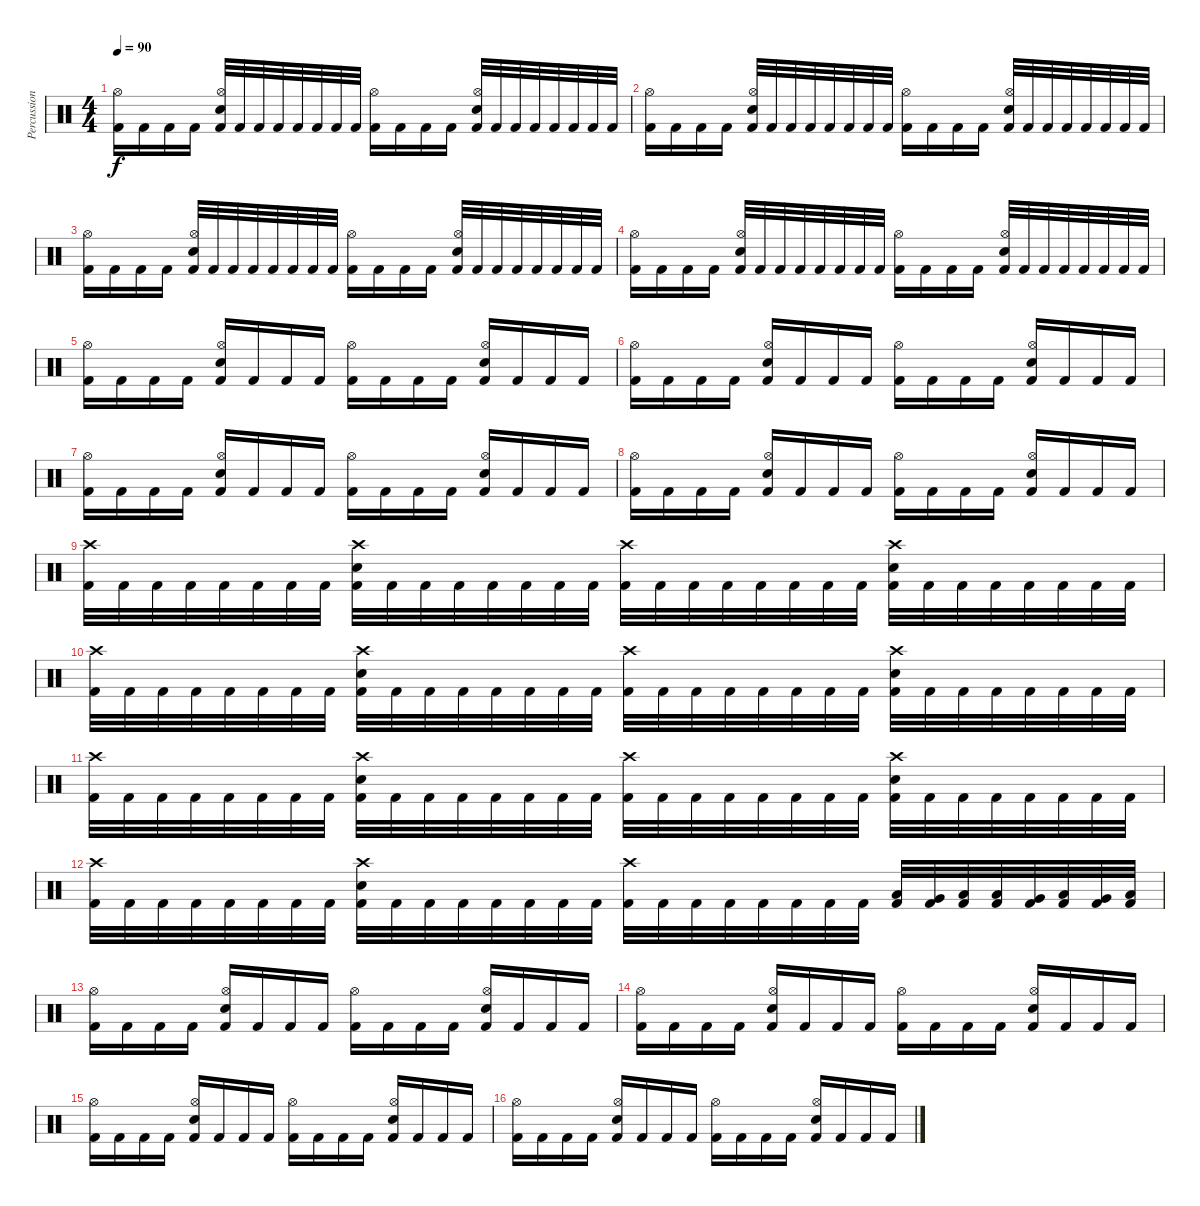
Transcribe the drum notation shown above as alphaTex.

\track ("Percussion" "Percussion") {instrument percussion}
\staff {score}
\articulation defaults
\ts (4 4)
\tempo 90
\clef neutral
\ks c
("Kick (hit) 2" "Hi-Hat (open)").16{dy f} "Kick (hit) 2".16 "Kick (hit) 2".16 "Kick (hit) 2".16 ("Kick (hit) 2" "Hi-Hat (open)" "Electric Snare (hit)").32 "Kick (hit) 2".32 "Kick (hit) 2".32 "Kick (hit) 2".32 "Kick (hit) 2".32 "Kick (hit) 2".32 "Kick (hit) 2".32 "Kick (hit) 2".32 ("Kick (hit) 2" "Hi-Hat (open)").16 "Kick (hit) 2".16 "Kick (hit) 2".16 "Kick (hit) 2".16 ("Kick (hit) 2" "Hi-Hat (open)" "Electric Snare (hit)").32 "Kick (hit) 2".32 "Kick (hit) 2".32 "Kick (hit) 2".32 "Kick (hit) 2".32 "Kick (hit) 2".32 "Kick (hit) 2".32 "Kick (hit) 2".32 |
("Kick (hit) 2" "Hi-Hat (open)").16 "Kick (hit) 2".16 "Kick (hit) 2".16 "Kick (hit) 2".16 ("Kick (hit) 2" "Hi-Hat (open)" "Electric Snare (hit)").32 "Kick (hit) 2".32 "Kick (hit) 2".32 "Kick (hit) 2".32 "Kick (hit) 2".32 "Kick (hit) 2".32 "Kick (hit) 2".32 "Kick (hit) 2".32 ("Kick (hit) 2" "Hi-Hat (open)").16 "Kick (hit) 2".16 "Kick (hit) 2".16 "Kick (hit) 2".16 ("Kick (hit) 2" "Hi-Hat (open)" "Electric Snare (hit)").32 "Kick (hit) 2".32 "Kick (hit) 2".32 "Kick (hit) 2".32 "Kick (hit) 2".32 "Kick (hit) 2".32 "Kick (hit) 2".32 "Kick (hit) 2".32 |
("Kick (hit) 2" "Hi-Hat (open)").16 "Kick (hit) 2".16 "Kick (hit) 2".16 "Kick (hit) 2".16 ("Kick (hit) 2" "Hi-Hat (open)" "Electric Snare (hit)").32 "Kick (hit) 2".32 "Kick (hit) 2".32 "Kick (hit) 2".32 "Kick (hit) 2".32 "Kick (hit) 2".32 "Kick (hit) 2".32 "Kick (hit) 2".32 ("Kick (hit) 2" "Hi-Hat (open)").16 "Kick (hit) 2".16 "Kick (hit) 2".16 "Kick (hit) 2".16 ("Kick (hit) 2" "Hi-Hat (open)" "Electric Snare (hit)").32 "Kick (hit) 2".32 "Kick (hit) 2".32 "Kick (hit) 2".32 "Kick (hit) 2".32 "Kick (hit) 2".32 "Kick (hit) 2".32 "Kick (hit) 2".32 |
("Kick (hit) 2" "Hi-Hat (open)").16 "Kick (hit) 2".16 "Kick (hit) 2".16 "Kick (hit) 2".16 ("Kick (hit) 2" "Hi-Hat (open)" "Electric Snare (hit)").32 "Kick (hit) 2".32 "Kick (hit) 2".32 "Kick (hit) 2".32 "Kick (hit) 2".32 "Kick (hit) 2".32 "Kick (hit) 2".32 "Kick (hit) 2".32 ("Kick (hit) 2" "Hi-Hat (open)").16 "Kick (hit) 2".16 "Kick (hit) 2".16 "Kick (hit) 2".16 ("Kick (hit) 2" "Hi-Hat (open)" "Electric Snare (hit)").32 "Kick (hit) 2".32 "Kick (hit) 2".32 "Kick (hit) 2".32 "Kick (hit) 2".32 "Kick (hit) 2".32 "Kick (hit) 2".32 "Kick (hit) 2".32 |
("Kick (hit) 2" "Hi-Hat (open)").16 "Kick (hit) 2".16 "Kick (hit) 2".16 "Kick (hit) 2".16 ("Kick (hit) 2" "Hi-Hat (open)" "Electric Snare (hit)").16 "Kick (hit) 2".16 "Kick (hit) 2".16 "Kick (hit) 2".16 ("Kick (hit) 2" "Hi-Hat (open)").16 "Kick (hit) 2".16 "Kick (hit) 2".16 "Kick (hit) 2".16 ("Kick (hit) 2" "Hi-Hat (open)" "Electric Snare (hit)").16 "Kick (hit) 2".16 "Kick (hit) 2".16 "Kick (hit) 2".16 |
("Kick (hit) 2" "Hi-Hat (open)").16 "Kick (hit) 2".16 "Kick (hit) 2".16 "Kick (hit) 2".16 ("Kick (hit) 2" "Hi-Hat (open)" "Electric Snare (hit)").16 "Kick (hit) 2".16 "Kick (hit) 2".16 "Kick (hit) 2".16 ("Kick (hit) 2" "Hi-Hat (open)").16 "Kick (hit) 2".16 "Kick (hit) 2".16 "Kick (hit) 2".16 ("Kick (hit) 2" "Hi-Hat (open)" "Electric Snare (hit)").16 "Kick (hit) 2".16 "Kick (hit) 2".16 "Kick (hit) 2".16 |
("Kick (hit) 2" "Hi-Hat (open)").16 "Kick (hit) 2".16 "Kick (hit) 2".16 "Kick (hit) 2".16 ("Kick (hit) 2" "Hi-Hat (open)" "Electric Snare (hit)").16 "Kick (hit) 2".16 "Kick (hit) 2".16 "Kick (hit) 2".16 ("Kick (hit) 2" "Hi-Hat (open)").16 "Kick (hit) 2".16 "Kick (hit) 2".16 "Kick (hit) 2".16 ("Kick (hit) 2" "Hi-Hat (open)" "Electric Snare (hit)").16 "Kick (hit) 2".16 "Kick (hit) 2".16 "Kick (hit) 2".16 |
("Kick (hit) 2" "Hi-Hat (open)").16 "Kick (hit) 2".16 "Kick (hit) 2".16 "Kick (hit) 2".16 ("Kick (hit) 2" "Hi-Hat (open)" "Electric Snare (hit)").16 "Kick (hit) 2".16 "Kick (hit) 2".16 "Kick (hit) 2".16 ("Kick (hit) 2" "Hi-Hat (open)").16 "Kick (hit) 2".16 "Kick (hit) 2".16 "Kick (hit) 2".16 ("Kick (hit) 2" "Hi-Hat (open)" "Electric Snare (hit)").16 "Kick (hit) 2".16 "Kick (hit) 2".16 "Kick (hit) 2".16 |
("Kick (hit) 2" "Crash high (hit)").32 "Kick (hit) 2".32 "Kick (hit) 2".32 "Kick (hit) 2".32 "Kick (hit) 2".32 "Kick (hit) 2".32 "Kick (hit) 2".32 "Kick (hit) 2".32 ("Kick (hit) 2" "Crash high (hit)" "Electric Snare (hit)").32 "Kick (hit) 2".32 "Kick (hit) 2".32 "Kick (hit) 2".32 "Kick (hit) 2".32 "Kick (hit) 2".32 "Kick (hit) 2".32 "Kick (hit) 2".32 ("Kick (hit) 2" "Crash high (hit)").32 "Kick (hit) 2".32 "Kick (hit) 2".32 "Kick (hit) 2".32 "Kick (hit) 2".32 "Kick (hit) 2".32 "Kick (hit) 2".32 "Kick (hit) 2".32 ("Kick (hit) 2" "Crash high (hit)" "Electric Snare (hit)").32 "Kick (hit) 2".32 "Kick (hit) 2".32 "Kick (hit) 2".32 "Kick (hit) 2".32 "Kick (hit) 2".32 "Kick (hit) 2".32 "Kick (hit) 2".32 |
("Kick (hit) 2" "Crash high (hit)").32 "Kick (hit) 2".32 "Kick (hit) 2".32 "Kick (hit) 2".32 "Kick (hit) 2".32 "Kick (hit) 2".32 "Kick (hit) 2".32 "Kick (hit) 2".32 ("Kick (hit) 2" "Crash high (hit)" "Electric Snare (hit)").32 "Kick (hit) 2".32 "Kick (hit) 2".32 "Kick (hit) 2".32 "Kick (hit) 2".32 "Kick (hit) 2".32 "Kick (hit) 2".32 "Kick (hit) 2".32 ("Kick (hit) 2" "Crash high (hit)").32 "Kick (hit) 2".32 "Kick (hit) 2".32 "Kick (hit) 2".32 "Kick (hit) 2".32 "Kick (hit) 2".32 "Kick (hit) 2".32 "Kick (hit) 2".32 ("Kick (hit) 2" "Crash high (hit)" "Electric Snare (hit)").32 "Kick (hit) 2".32 "Kick (hit) 2".32 "Kick (hit) 2".32 "Kick (hit) 2".32 "Kick (hit) 2".32 "Kick (hit) 2".32 "Kick (hit) 2".32 |
("Kick (hit) 2" "Crash high (hit)").32 "Kick (hit) 2".32 "Kick (hit) 2".32 "Kick (hit) 2".32 "Kick (hit) 2".32 "Kick (hit) 2".32 "Kick (hit) 2".32 "Kick (hit) 2".32 ("Kick (hit) 2" "Crash high (hit)" "Electric Snare (hit)").32 "Kick (hit) 2".32 "Kick (hit) 2".32 "Kick (hit) 2".32 "Kick (hit) 2".32 "Kick (hit) 2".32 "Kick (hit) 2".32 "Kick (hit) 2".32 ("Kick (hit) 2" "Crash high (hit)").32 "Kick (hit) 2".32 "Kick (hit) 2".32 "Kick (hit) 2".32 "Kick (hit) 2".32 "Kick (hit) 2".32 "Kick (hit) 2".32 "Kick (hit) 2".32 ("Kick (hit) 2" "Crash high (hit)" "Electric Snare (hit)").32 "Kick (hit) 2".32 "Kick (hit) 2".32 "Kick (hit) 2".32 "Kick (hit) 2".32 "Kick (hit) 2".32 "Kick (hit) 2".32 "Kick (hit) 2".32 |
("Kick (hit) 2" "Crash high (hit)").32 "Kick (hit) 2".32 "Kick (hit) 2".32 "Kick (hit) 2".32 "Kick (hit) 2".32 "Kick (hit) 2".32 "Kick (hit) 2".32 "Kick (hit) 2".32 ("Kick (hit) 2" "Crash high (hit)" "Electric Snare (hit)").32 "Kick (hit) 2".32 "Kick (hit) 2".32 "Kick (hit) 2".32 "Kick (hit) 2".32 "Kick (hit) 2".32 "Kick (hit) 2".32 "Kick (hit) 2".32 ("Kick (hit) 2" "Crash high (hit)").32 "Kick (hit) 2".32 "Kick (hit) 2".32 "Kick (hit) 2".32 "Kick (hit) 2".32 "Kick (hit) 2".32 "Kick (hit) 2".32 "Kick (hit) 2".32 ("Kick (hit) 2" "Low Tom (hit)").32 ("Kick (hit) 2" "Very Low Tom (hit)").32 ("Kick (hit) 2" "Low Floor Tom (hit)").32 ("Kick (hit) 2" "Low Tom (hit)").32 ("Kick (hit) 2" "Very Low Tom (hit)").32 ("Kick (hit) 2" "Low Floor Tom (hit)").32 ("Kick (hit) 2" "Very Low Tom (hit)").32 ("Kick (hit) 2" "Low Floor Tom (hit)").32 |
("Kick (hit) 2" "Hi-Hat (open)").16 "Kick (hit) 2".16 "Kick (hit) 2".16 "Kick (hit) 2".16 ("Kick (hit) 2" "Hi-Hat (open)" "Electric Snare (hit)").16 "Kick (hit) 2".16 "Kick (hit) 2".16 "Kick (hit) 2".16 ("Kick (hit) 2" "Hi-Hat (open)").16 "Kick (hit) 2".16 "Kick (hit) 2".16 "Kick (hit) 2".16 ("Kick (hit) 2" "Hi-Hat (open)" "Electric Snare (hit)").16 "Kick (hit) 2".16 "Kick (hit) 2".16 "Kick (hit) 2".16 |
("Kick (hit) 2" "Hi-Hat (open)").16 "Kick (hit) 2".16 "Kick (hit) 2".16 "Kick (hit) 2".16 ("Kick (hit) 2" "Hi-Hat (open)" "Electric Snare (hit)").16 "Kick (hit) 2".16 "Kick (hit) 2".16 "Kick (hit) 2".16 ("Kick (hit) 2" "Hi-Hat (open)").16 "Kick (hit) 2".16 "Kick (hit) 2".16 "Kick (hit) 2".16 ("Kick (hit) 2" "Hi-Hat (open)" "Electric Snare (hit)").16 "Kick (hit) 2".16 "Kick (hit) 2".16 "Kick (hit) 2".16 |
("Kick (hit) 2" "Hi-Hat (open)").16 "Kick (hit) 2".16 "Kick (hit) 2".16 "Kick (hit) 2".16 ("Kick (hit) 2" "Hi-Hat (open)" "Electric Snare (hit)").16 "Kick (hit) 2".16 "Kick (hit) 2".16 "Kick (hit) 2".16 ("Kick (hit) 2" "Hi-Hat (open)").16 "Kick (hit) 2".16 "Kick (hit) 2".16 "Kick (hit) 2".16 ("Kick (hit) 2" "Hi-Hat (open)" "Electric Snare (hit)").16 "Kick (hit) 2".16 "Kick (hit) 2".16 "Kick (hit) 2".16 |
("Kick (hit) 2" "Hi-Hat (open)").16 "Kick (hit) 2".16 "Kick (hit) 2".16 "Kick (hit) 2".16 ("Kick (hit) 2" "Hi-Hat (open)" "Electric Snare (hit)").16 "Kick (hit) 2".16 "Kick (hit) 2".16 "Kick (hit) 2".16 ("Kick (hit) 2" "Hi-Hat (open)").16 "Kick (hit) 2".16 "Kick (hit) 2".16 "Kick (hit) 2".16 ("Kick (hit) 2" "Hi-Hat (open)" "Electric Snare (hit)").16 "Kick (hit) 2".16 "Kick (hit) 2".16 "Kick (hit) 2".16
